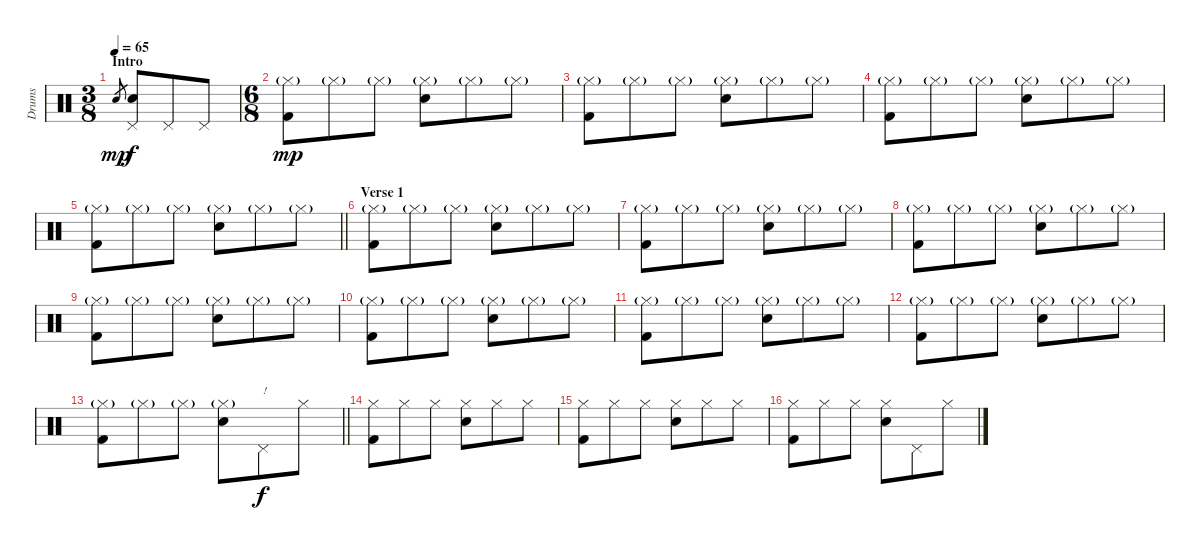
\track ("Drums" "Drums") {instrument percussion}
\staff {score}
\articulation defaults
\ts (3 8)
\section ("" "Intro")
\tempo 65
\clef neutral
\ks c "Snare (hit) 2".8{gr dy mp}
("Pedal Hi-Hat (hit)" "Snare (hit) 2").8{dy f} "Pedal Hi-Hat (hit)".8 "Pedal Hi-Hat (hit)".8 |
\ts (6 8)
("Hi-Hat (closed)"{g} "Kick (hit) 2").8{dy mp} "Hi-Hat (closed)"{g}.8 "Hi-Hat (closed)"{g}.8 ("Hi-Hat (closed)"{g} "Snare (hit) 2").8 "Hi-Hat (closed)"{g}.8 "Hi-Hat (closed)"{g}.8 |
("Hi-Hat (closed)"{g} "Kick (hit) 2").8 "Hi-Hat (closed)"{g}.8 "Hi-Hat (closed)"{g}.8 ("Hi-Hat (closed)"{g} "Snare (hit) 2").8 "Hi-Hat (closed)"{g}.8 "Hi-Hat (closed)"{g}.8 |
("Hi-Hat (closed)"{g} "Kick (hit) 2").8 "Hi-Hat (closed)"{g}.8 "Hi-Hat (closed)"{g}.8 ("Hi-Hat (closed)"{g} "Snare (hit) 2").8 "Hi-Hat (closed)"{g}.8 "Hi-Hat (closed)"{g}.8 |
\barLineRight lightlight
("Hi-Hat (closed)"{g} "Kick (hit) 2").8 "Hi-Hat (closed)"{g}.8 "Hi-Hat (closed)"{g}.8 ("Hi-Hat (closed)"{g} "Snare (hit) 2").8 "Hi-Hat (closed)"{g}.8 "Hi-Hat (closed)"{g}.8 |
\section ("" "Verse 1")
("Hi-Hat (closed)"{g} "Kick (hit) 2").8 "Hi-Hat (closed)"{g}.8 "Hi-Hat (closed)"{g}.8 ("Hi-Hat (closed)"{g} "Snare (hit) 2").8 "Hi-Hat (closed)"{g}.8 "Hi-Hat (closed)"{g}.8 |
("Hi-Hat (closed)"{g} "Kick (hit) 2").8 "Hi-Hat (closed)"{g}.8 "Hi-Hat (closed)"{g}.8 ("Hi-Hat (closed)"{g} "Snare (hit) 2").8 "Hi-Hat (closed)"{g}.8 "Hi-Hat (closed)"{g}.8 |
("Hi-Hat (closed)"{g} "Kick (hit) 2").8 "Hi-Hat (closed)"{g}.8 "Hi-Hat (closed)"{g}.8 ("Hi-Hat (closed)"{g} "Snare (hit) 2").8 "Hi-Hat (closed)"{g}.8 "Hi-Hat (closed)"{g}.8 |
("Hi-Hat (closed)"{g} "Kick (hit) 2").8 "Hi-Hat (closed)"{g}.8 "Hi-Hat (closed)"{g}.8 ("Hi-Hat (closed)"{g} "Snare (hit) 2").8 "Hi-Hat (closed)"{g}.8 "Hi-Hat (closed)"{g}.8 |
("Hi-Hat (closed)"{g} "Kick (hit) 2").8 "Hi-Hat (closed)"{g}.8 "Hi-Hat (closed)"{g}.8 ("Hi-Hat (closed)"{g} "Snare (hit) 2").8 "Hi-Hat (closed)"{g}.8 "Hi-Hat (closed)"{g}.8 |
("Hi-Hat (closed)"{g} "Kick (hit) 2").8 "Hi-Hat (closed)"{g}.8 "Hi-Hat (closed)"{g}.8 ("Hi-Hat (closed)"{g} "Snare (hit) 2").8 "Hi-Hat (closed)"{g}.8 "Hi-Hat (closed)"{g}.8 |
("Hi-Hat (closed)"{g} "Kick (hit) 2").8 "Hi-Hat (closed)"{g}.8 "Hi-Hat (closed)"{g}.8 ("Hi-Hat (closed)"{g} "Snare (hit) 2").8 "Hi-Hat (closed)"{g}.8 "Hi-Hat (closed)"{g}.8 |
\barLineRight lightlight
("Hi-Hat (closed)"{g} "Kick (hit) 2").8 "Hi-Hat (closed)"{g}.8 "Hi-Hat (closed)"{g}.8 ("Hi-Hat (closed)"{g} "Snare (hit) 2").8 "Pedal Hi-Hat (hit)".8{txt "!" dy f} "Hi-Hat (closed)".8 |
\section ("" "")
("Hi-Hat (closed)" "Kick (hit) 2").8 "Hi-Hat (closed)".8 "Hi-Hat (closed)".8 ("Hi-Hat (closed)" "Snare (hit) 2").8 "Hi-Hat (closed)".8 "Hi-Hat (closed)".8 |
("Hi-Hat (closed)" "Kick (hit) 2").8 "Hi-Hat (closed)".8 "Hi-Hat (closed)".8 ("Hi-Hat (closed)" "Snare (hit) 2").8 "Hi-Hat (closed)".8 "Hi-Hat (closed)".8 |
("Hi-Hat (closed)" "Kick (hit) 2").8 "Hi-Hat (closed)".8 "Hi-Hat (closed)".8 ("Hi-Hat (closed)" "Snare (hit) 2").8 "Pedal Hi-Hat (hit)".8 "Hi-Hat (closed)".8
